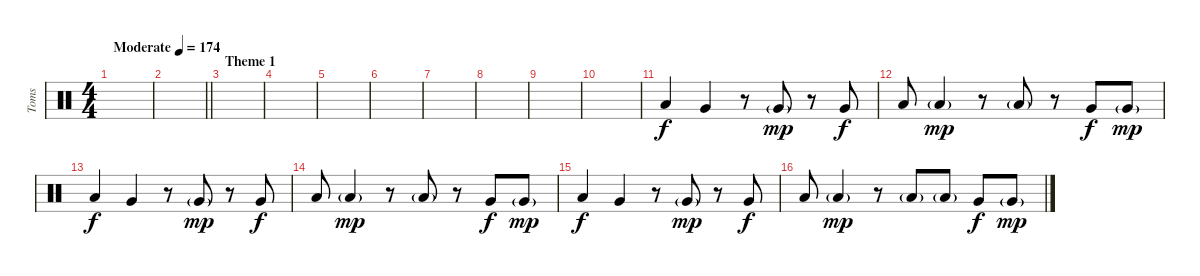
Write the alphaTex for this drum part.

\track ("Toms" "Toms") {instrument percussion}
\staff {score}
\articulation defaults
\ts (4 4)
\tempo (174 "Moderate")
\clef neutral
\ks c
|
\barLineRight lightlight
|
\section ("" "Theme 1")
|
|
|
|
|
|
|
|
"Low Tom (hit)".4 "Very Low Tom (hit)".4 r.8 "Very Low Tom (hit)"{g}.8{dy mp} r.8 "Very Low Tom (hit)".8{dy f} |
"Low Tom (hit)".8 "Low Floor Tom (hit)"{g}.4{dy mp} r.8 "Low Floor Tom (hit)"{g}.8 r.8 "Very Low Tom (hit)".8{dy f} "Very Low Tom (hit)"{g}.8{dy mp} |
"Low Tom (hit)".4{dy f} "Very Low Tom (hit)".4 r.8 "Very Low Tom (hit)"{g}.8{dy mp} r.8 "Very Low Tom (hit)".8{dy f} |
"Low Tom (hit)".8 "Low Floor Tom (hit)"{g}.4{dy mp} r.8 "Low Floor Tom (hit)"{g}.8 r.8 "Very Low Tom (hit)".8{dy f} "Very Low Tom (hit)"{g}.8{dy mp} |
"Low Tom (hit)".4{dy f} "Very Low Tom (hit)".4 r.8 "Very Low Tom (hit)"{g}.8{dy mp} r.8 "Very Low Tom (hit)".8{dy f} |
"Low Tom (hit)".8 "Low Floor Tom (hit)"{g}.4{dy mp} r.8 "Low Floor Tom (hit)"{g}.8 "Low Floor Tom (hit)"{g}.8 "Very Low Tom (hit)".8{dy f} "Very Low Tom (hit)"{g}.8{dy mp}
